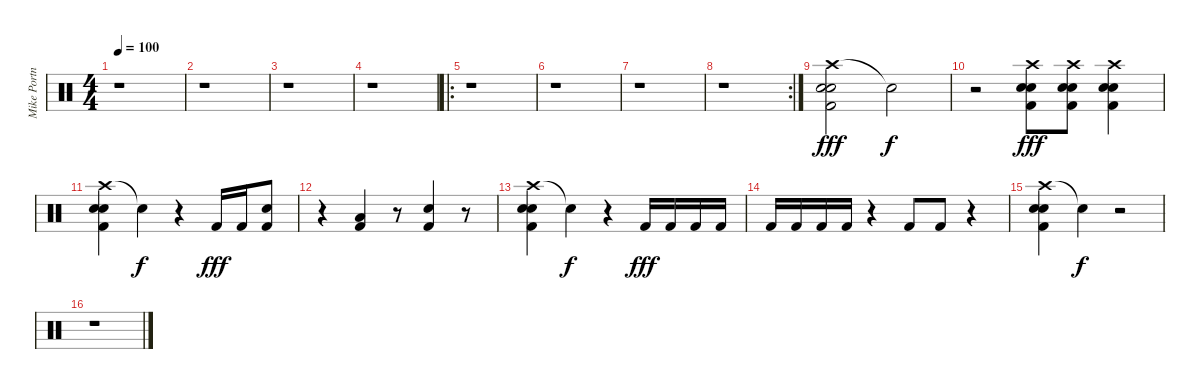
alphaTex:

\track ("Mike Portnoy" "Mike Portn") {instrument percussion}
\staff {score}
\articulation defaults
\ts (4 4)
\tempo 100
\clef neutral
\ks c
r.1{dy fff} |
r.1 |
r.1 |
r.1 |
\ro
r.1 |
r.1 |
r.1 |
\rc 2
r.1 |
("Crash high (hit)" "Electric Snare (hit)" "Electric Snare (hit)" "Kick (hit) 2").2 "Snare (hit)"{t}.2{dy f} |
r.2 ("Crash high (hit)" "Electric Snare (hit)" "Electric Snare (hit)" "Kick (hit) 2").8{dy fff} ("Crash high (hit)" "Electric Snare (hit)" "Electric Snare (hit)" "Kick (hit) 2").8 ("Crash high (hit)" "Electric Snare (hit)" "Electric Snare (hit)" "Kick (hit) 2").4 |
("Crash high (hit)" "Electric Snare (hit)" "Electric Snare (hit)" "Kick (hit) 2").4 "Snare (hit)"{t}.4{dy f} r.4 "Kick (hit) 2".16{dy fff} "Kick (hit) 2".16 ("Electric Snare (hit)" "Kick (hit) 2").8 |
r.4 ("Low Tom (hit)" "Kick (hit) 2").4 r.8 ("Electric Snare (hit)" "Kick (hit) 2").4 r.8 |
("Crash high (hit)" "Electric Snare (hit)" "Electric Snare (hit)" "Kick (hit) 2").4 "Snare (hit)"{t}.4{dy f} r.4 "Kick (hit) 2".16{dy fff} "Kick (hit) 2".16 "Kick (hit) 2".16 "Kick (hit) 2".16 |
"Kick (hit) 2".16 "Kick (hit) 2".16 "Kick (hit) 2".16 "Kick (hit) 2".16 r.4 "Kick (hit) 2".8 "Kick (hit) 2".8 r.4 |
("Crash high (hit)" "Electric Snare (hit)" "Electric Snare (hit)" "Kick (hit) 2").4 "Snare (hit)"{t}.4{dy f} r.2 |
r.1
